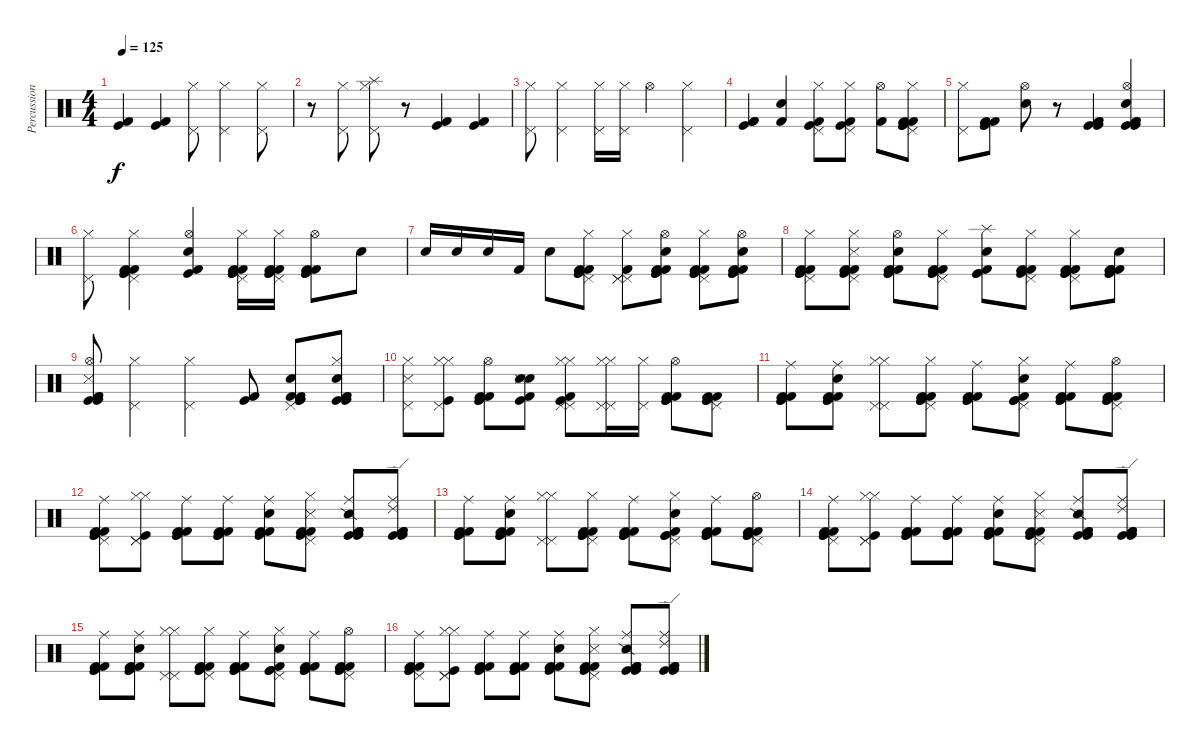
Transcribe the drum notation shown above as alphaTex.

\track ("Percussion" "Percussion") {instrument percussion}
\staff {score}
\articulation defaults
\ts (4 4)
\tempo 125
\clef neutral
\ks c
("Kick (hit) 2" "Kick (hit)").4{dy f} ("Kick (hit) 2" "Kick (hit)").4 ("Pedal Hi-Hat (hit)" "Hi-Hat (closed)").8 ("Pedal Hi-Hat (hit)" "Hi-Hat (closed)").4 ("Pedal Hi-Hat (hit)" "Hi-Hat (closed)").8 |
r.8 ("Hi-Hat (closed)" "Pedal Hi-Hat (hit)").8 ("Splash (hit)" "Pedal Hi-Hat (hit)" "Hi-Hat (closed)").8 r.8 ("Kick (hit) 2" "Kick (hit)").4 ("Kick (hit) 2" "Kick (hit)").4 |
("Pedal Hi-Hat (hit)" "Hi-Hat (closed)").8 ("Pedal Hi-Hat (hit)" "Hi-Hat (closed)").4 ("Pedal Hi-Hat (hit)" "Hi-Hat (closed)").16 ("Pedal Hi-Hat (hit)" "Hi-Hat (closed)").16 "Hi-Hat (open)".4 ("Hi-Hat (closed)" "Pedal Hi-Hat (hit)").4 |
("Kick (hit) 2" "Kick (hit)" "Kick (hit) 2").4 ("Snare (hit) 2" "Kick (hit) 2").4 ("Kick (hit) 2" "Kick (hit)" "Pedal Hi-Hat (hit)" "Hi-Hat (closed)").8 ("Kick (hit) 2" "Kick (hit)" "Pedal Hi-Hat (hit)" "Hi-Hat (closed)").8 ("Kick (hit) 2" "Hi-Hat (open)").8 ("Kick (hit) 2" "Kick (hit) 2" "Kick (hit)" "Kick (hit)" "Pedal Hi-Hat (hit)" "Hi-Hat (closed)").8 |
("Pedal Hi-Hat (hit)" "Hi-Hat (closed)").8 ("Kick (hit) 2" "Kick (hit) 2" "Kick (hit)" "Kick (hit)").8 ("Hi-Hat (open)" "Snare (hit) 2").8 r.8 ("Kick (hit) 2" "Kick (hit)" "Kick (hit)" "Kick (hit) 2").4 ("Snare (hit) 2" "Hi-Hat (open)" "Kick (hit) 2" "Kick (hit) 2" "Kick (hit)" "Kick (hit)").4 |
("Pedal Hi-Hat (hit)" "Hi-Hat (closed)").8 ("Kick (hit) 2" "Pedal Hi-Hat (hit)" "Hi-Hat (closed)" "Kick (hit) 2" "Kick (hit)" "Kick (hit)").4 ("Hi-Hat (open)" "Snare (hit) 2" "Kick (hit) 2" "Kick (hit)").4 ("Kick (hit) 2" "Kick (hit)" "Kick (hit) 2" "Kick (hit)" "Pedal Hi-Hat (hit)" "Hi-Hat (closed)").16 ("Pedal Hi-Hat (hit)" "Hi-Hat (closed)" "Kick (hit)" "Kick (hit) 2" "Kick (hit) 2" "Kick (hit)").16 ("Hi-Hat (open)" "Kick (hit) 2" "Kick (hit)" "Kick (hit) 2" "Kick (hit)").8 "Snare (hit) 2".8 |
"Snare (hit) 2".16 "Electric Snare (hit)".16 "Electric Snare (hit)".16 "Kick (hit) 2".16 "Electric Snare (hit)".8 ("Kick (hit) 2" "Kick (hit)" "Kick (hit) 2" "Kick (hit)" "Pedal Hi-Hat (hit)" "Hi-Hat (closed)").8 ("Pedal Hi-Hat (hit)" "Hi-Hat (closed)" "Kick (hit) 2" "Pedal Hi-Hat (hit)" "Pedal Hi-Hat (hit)").8 ("Kick (hit) 2" "Kick (hit)" "Kick (hit) 2" "Kick (hit)" "Snare (hit) 2" "Hi-Hat (open)").8 ("Kick (hit) 2" "Kick (hit)" "Kick (hit) 2" "Kick (hit)" "Pedal Hi-Hat (hit)" "Hi-Hat (closed)").8 ("Kick (hit) 2" "Kick (hit)" "Kick (hit) 2" "Kick (hit)" "Snare (hit) 2" "Hi-Hat (open)").8 |
("Kick (hit) 2" "Kick (hit)" "Kick (hit)" "Kick (hit) 2" "Pedal Hi-Hat (hit)" "Hi-Hat (closed)").8 ("Kick (hit) 2" "Kick (hit) 2" "Pedal Hi-Hat (hit)" "Hi-Hat (closed)" "Snare (side stick) 3" "Kick (hit)").8 ("Snare (hit) 2" "Kick (hit) 2" "Kick (hit)" "Kick (hit)" "Kick (hit) 2" "Hi-Hat (open)").8 ("Kick (hit) 2" "Kick (hit) 2" "Kick (hit)" "Kick (hit)" "Pedal Hi-Hat (hit)" "Hi-Hat (closed)").8 ("Kick (hit) 2" "Kick (hit)" "Snare (hit) 2" "Splash (hit)" "Kick (hit)").8 ("Kick (hit) 2" "Kick (hit) 2" "Kick (hit)" "Pedal Hi-Hat (hit)" "Hi-Hat (closed)").8 ("Kick (hit) 2" "Kick (hit)" "Kick (hit) 2" "Kick (hit)" "Pedal Hi-Hat (hit)" "Hi-Hat (closed)").8 ("Snare (hit) 2" "Kick (hit) 2" "Kick (hit) 2" "Kick (hit) 2" "Kick (hit)" "Kick (hit)").8 |
("Kick (hit)" "Kick (hit)" "Kick (hit) 2" "Kick (hit) 2" "Hi-Hat (open)" "Snare (side stick) 3").8 ("Pedal Hi-Hat (hit)" "Hi-Hat (closed)").4 ("Pedal Hi-Hat (hit)" "Hi-Hat (closed)").4 ("Kick (hit) 2" "Kick (hit)").8 ("Kick (hit) 2" "Snare (hit) 2" "Kick (hit) 2" "Kick (hit)" "Kick (hit)" "Pedal Hi-Hat (hit)").8 ("Snare (hit) 2" "Kick (hit) 2" "Kick (hit) 2" "Kick (hit)" "Kick (hit)" "Hi-Hat (closed)").8 |
("Snare (side stick) 3" "Pedal Hi-Hat (hit)" "Hi-Hat (closed)").8 ("Hi-Hat (closed)" "Pedal Hi-Hat (hit)" "Hi-Hat (closed)" "Kick (hit)").8 ("Kick (hit) 2" "Kick (hit)" "Kick (hit) 2" "Kick (hit)" "Hi-Hat (open)").8 ("Snare (hit) 2" "Snare (side stick) 3" "Kick (hit) 2" "Kick (hit)" "Snare (hit) 2").8 ("Pedal Hi-Hat (hit)" "Hi-Hat (closed)" "Pedal Hi-Hat (hit)" "Hi-Hat (closed)" "Kick (hit) 2" "Kick (hit)").8 ("Pedal Hi-Hat (hit)" "Hi-Hat (closed)" "Hi-Hat (closed)" "Pedal Hi-Hat (hit)").16 ("Pedal Hi-Hat (hit)" "Hi-Hat (closed)").16 ("Kick (hit) 2" "Kick (hit) 2" "Kick (hit)" "Kick (hit)" "Hi-Hat (open)").8 ("Kick (hit) 2" "Kick (hit)" "Kick (hit) 2" "Kick (hit)" "Pedal Hi-Hat (hit)").8 |
("Kick (hit) 2" "Kick (hit) 2" "Kick (hit)" "Kick (hit)" "Ride (middle)").8 ("Ride (middle)" "Kick (hit) 2" "Kick (hit) 2" "Kick (hit)" "Kick (hit)" "Snare (hit) 2").8 ("Pedal Hi-Hat (hit)" "Hi-Hat (closed)" "Pedal Hi-Hat (hit)" "Hi-Hat (closed)").8 ("Kick (hit) 2" "Kick (hit)" "Kick (hit) 2" "Kick (hit)" "Pedal Hi-Hat (hit)" "Hi-Hat (closed)").8 ("Kick (hit) 2" "Kick (hit)" "Kick (hit) 2" "Kick (hit)" "Ride (middle)").8 ("Snare (hit) 2" "Kick (hit)" "Kick (hit) 2" "Kick (hit)" "Pedal Hi-Hat (hit)" "Hi-Hat (closed)").8 ("Kick (hit) 2" "Kick (hit) 2" "Kick (hit)" "Kick (hit)" "Ride (middle)").8 ("Kick (hit)" "Kick (hit)" "Kick (hit) 2" "Kick (hit) 2" "Pedal Hi-Hat (hit)" "Hi-Hat (open)").8 |
("Kick (hit) 2" "Kick (hit) 2" "Kick (hit)" "Kick (hit)" "Pedal Hi-Hat (hit)" "Ride (middle)").8 ("Pedal Hi-Hat (hit)" "Hi-Hat (closed)" "Pedal Hi-Hat (hit)" "Hi-Hat (closed)" "Kick (hit)").8 ("Kick (hit) 2" "Kick (hit) 2" "Kick (hit)" "Kick (hit)" "Ride (middle)").8 ("Kick (hit) 2" "Kick (hit)" "Kick (hit) 2" "Kick (hit)" "Ride (middle)").8 ("Snare (hit) 2" "Kick (hit) 2" "Kick (hit) 2" "Kick (hit)" "Ride (middle)").8 ("Kick (hit) 2" "Snare (side stick) 3" "Kick (hit)" "Kick (hit) 2" "Pedal Hi-Hat (hit)" "Hi-Hat (closed)").8 ("Kick (hit) 2" "Kick (hit) 2" "Kick (hit)" "Kick (hit)" "Ride (middle)" "Snare (side stick) 2").8 ("Kick (hit) 2" "Kick (hit) 2" "Kick (hit)" "Kick (hit)" "Ride (edge) 2" "Ride (middle)").8 |
("Kick (hit) 2" "Kick (hit) 2" "Kick (hit)" "Kick (hit)" "Ride (middle)").8 ("Ride (middle)" "Kick (hit) 2" "Kick (hit) 2" "Kick (hit)" "Kick (hit)" "Snare (hit) 2").8 ("Pedal Hi-Hat (hit)" "Hi-Hat (closed)" "Pedal Hi-Hat (hit)" "Hi-Hat (closed)").8 ("Kick (hit) 2" "Kick (hit)" "Kick (hit) 2" "Kick (hit)" "Pedal Hi-Hat (hit)" "Hi-Hat (closed)").8 ("Kick (hit) 2" "Kick (hit)" "Kick (hit) 2" "Kick (hit)" "Ride (middle)").8 ("Snare (hit) 2" "Kick (hit)" "Kick (hit) 2" "Kick (hit)" "Pedal Hi-Hat (hit)" "Hi-Hat (closed)").8 ("Kick (hit) 2" "Kick (hit) 2" "Kick (hit)" "Kick (hit)" "Ride (middle)").8 ("Kick (hit)" "Kick (hit)" "Kick (hit) 2" "Kick (hit) 2" "Pedal Hi-Hat (hit)" "Hi-Hat (open)").8 |
("Kick (hit) 2" "Kick (hit) 2" "Kick (hit)" "Kick (hit)" "Pedal Hi-Hat (hit)" "Ride (middle)").8 ("Pedal Hi-Hat (hit)" "Hi-Hat (closed)" "Pedal Hi-Hat (hit)" "Hi-Hat (closed)" "Kick (hit)").8 ("Kick (hit) 2" "Kick (hit) 2" "Kick (hit)" "Kick (hit)" "Ride (middle)").8 ("Kick (hit) 2" "Kick (hit)" "Kick (hit) 2" "Kick (hit)" "Ride (middle)").8 ("Snare (hit) 2" "Kick (hit) 2" "Kick (hit) 2" "Kick (hit)" "Ride (middle)").8 ("Kick (hit) 2" "Snare (side stick) 3" "Kick (hit)" "Kick (hit) 2" "Pedal Hi-Hat (hit)" "Hi-Hat (closed)").8 ("Kick (hit) 2" "Kick (hit) 2" "Kick (hit)" "Kick (hit)" "Ride (middle)" "Snare (side stick) 2").8 ("Kick (hit) 2" "Kick (hit) 2" "Kick (hit)" "Kick (hit)" "Ride (edge) 2" "Ride (middle)").8 |
("Kick (hit) 2" "Kick (hit) 2" "Kick (hit)" "Kick (hit)" "Ride (middle)").8 ("Ride (middle)" "Kick (hit) 2" "Kick (hit) 2" "Kick (hit)" "Kick (hit)" "Snare (hit) 2").8 ("Pedal Hi-Hat (hit)" "Hi-Hat (closed)" "Pedal Hi-Hat (hit)" "Hi-Hat (closed)").8 ("Kick (hit) 2" "Kick (hit)" "Kick (hit) 2" "Kick (hit)" "Pedal Hi-Hat (hit)" "Hi-Hat (closed)").8 ("Kick (hit) 2" "Kick (hit)" "Kick (hit) 2" "Kick (hit)" "Ride (middle)").8 ("Snare (hit) 2" "Kick (hit)" "Kick (hit) 2" "Kick (hit)" "Pedal Hi-Hat (hit)" "Hi-Hat (closed)").8 ("Kick (hit) 2" "Kick (hit) 2" "Kick (hit)" "Kick (hit)" "Ride (middle)").8 ("Kick (hit)" "Kick (hit)" "Kick (hit) 2" "Kick (hit) 2" "Pedal Hi-Hat (hit)" "Hi-Hat (open)").8 |
("Kick (hit) 2" "Kick (hit) 2" "Kick (hit)" "Kick (hit)" "Pedal Hi-Hat (hit)" "Ride (middle)").8 ("Pedal Hi-Hat (hit)" "Hi-Hat (closed)" "Pedal Hi-Hat (hit)" "Hi-Hat (closed)" "Kick (hit)").8 ("Kick (hit) 2" "Kick (hit) 2" "Kick (hit)" "Kick (hit)" "Ride (middle)").8 ("Kick (hit) 2" "Kick (hit)" "Kick (hit) 2" "Kick (hit)" "Ride (middle)").8 ("Snare (hit) 2" "Kick (hit) 2" "Kick (hit) 2" "Kick (hit)" "Ride (middle)").8 ("Kick (hit) 2" "Snare (side stick) 3" "Kick (hit)" "Kick (hit) 2" "Pedal Hi-Hat (hit)" "Hi-Hat (closed)").8 ("Kick (hit) 2" "Kick (hit) 2" "Kick (hit)" "Kick (hit)" "Ride (middle)" "Snare (side stick) 2").8 ("Kick (hit) 2" "Kick (hit) 2" "Kick (hit)" "Kick (hit)" "Ride (edge) 2" "Ride (middle)").8
